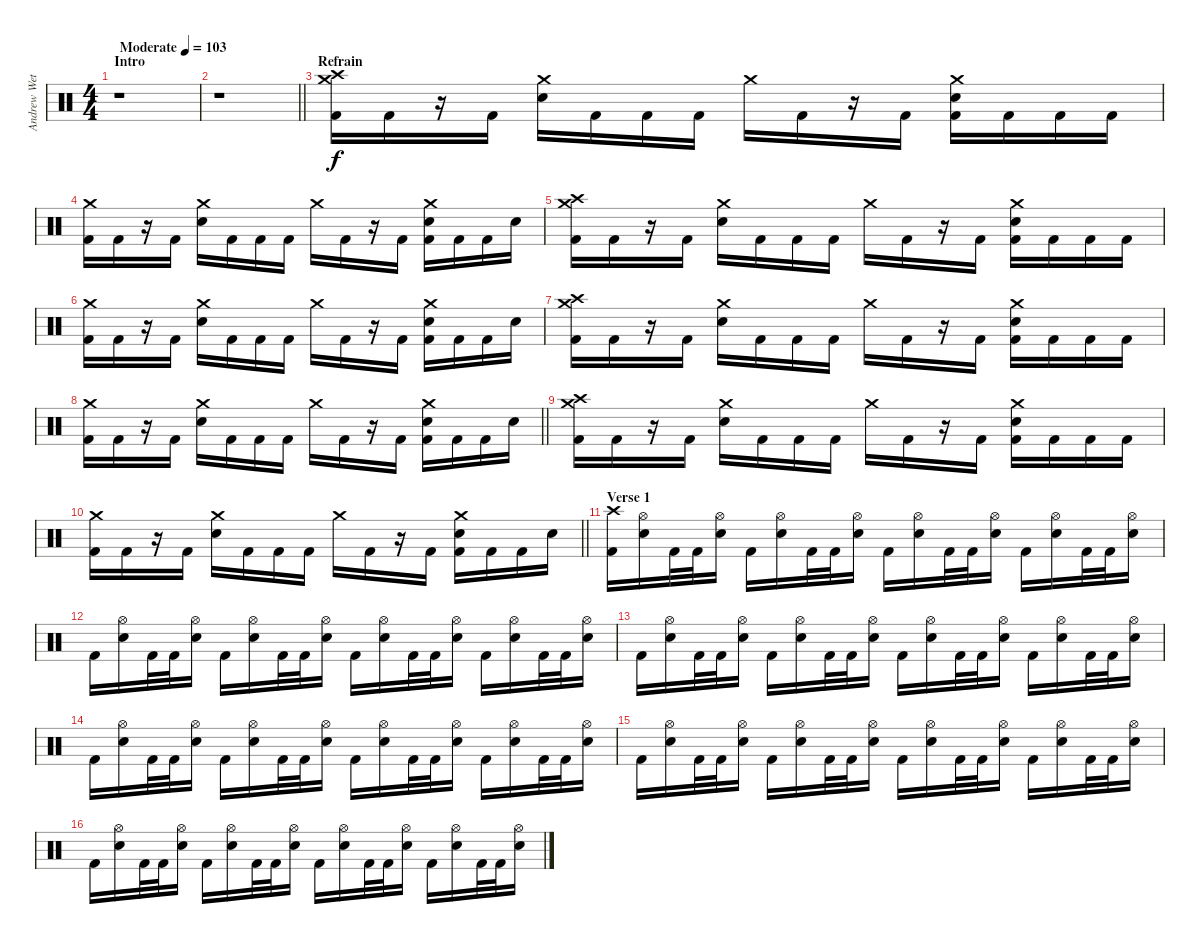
\track ("Andrew Wetzel - Drums" "Andrew Wet") {instrument percussion}
\staff {score}
\articulation defaults
\ts (4 4)
\section ("" "Intro")
\tempo (103 "Moderate")
\clef neutral
\ks c
r.1{dy f} |
\barLineRight lightlight
r.1 |
\section ("" "Refrain")
("Crash high (hit)" "Crash medium (hit)" "Kick (hit) 2").16 "Kick (hit) 2".16 r.16 "Kick (hit) 2".16 ("Crash medium (hit)" "Electric Snare (hit)").16 "Kick (hit) 2".16 "Kick (hit) 2".16 "Kick (hit) 2".16 "Crash medium (hit)".16 "Kick (hit) 2".16 r.16 "Kick (hit) 2".16 ("Crash medium (hit)" "Electric Snare (hit)" "Kick (hit) 2").16 "Kick (hit) 2".16 "Kick (hit) 2".16 "Kick (hit) 2".16 |
("Crash medium (hit)" "Kick (hit) 2").16 "Kick (hit) 2".16 r.16 "Kick (hit) 2".16 ("Crash medium (hit)" "Electric Snare (hit)").16 "Kick (hit) 2".16 "Kick (hit) 2".16 "Kick (hit) 2".16 "Crash medium (hit)".16 "Kick (hit) 2".16 r.16 "Kick (hit) 2".16 ("Crash medium (hit)" "Electric Snare (hit)" "Kick (hit) 2").16 "Kick (hit) 2".16 "Kick (hit) 2".16 "Electric Snare (hit)".16 |
("Crash high (hit)" "Crash medium (hit)" "Kick (hit) 2").16 "Kick (hit) 2".16 r.16 "Kick (hit) 2".16 ("Crash medium (hit)" "Electric Snare (hit)").16 "Kick (hit) 2".16 "Kick (hit) 2".16 "Kick (hit) 2".16 "Crash medium (hit)".16 "Kick (hit) 2".16 r.16 "Kick (hit) 2".16 ("Crash medium (hit)" "Electric Snare (hit)" "Kick (hit) 2").16 "Kick (hit) 2".16 "Kick (hit) 2".16 "Kick (hit) 2".16 |
("Crash medium (hit)" "Kick (hit) 2").16 "Kick (hit) 2".16 r.16 "Kick (hit) 2".16 ("Crash medium (hit)" "Electric Snare (hit)").16 "Kick (hit) 2".16 "Kick (hit) 2".16 "Kick (hit) 2".16 "Crash medium (hit)".16 "Kick (hit) 2".16 r.16 "Kick (hit) 2".16 ("Crash medium (hit)" "Electric Snare (hit)" "Kick (hit) 2").16 "Kick (hit) 2".16 "Kick (hit) 2".16 "Electric Snare (hit)".16 |
("Crash high (hit)" "Crash medium (hit)" "Kick (hit) 2").16 "Kick (hit) 2".16 r.16 "Kick (hit) 2".16 ("Crash medium (hit)" "Electric Snare (hit)").16 "Kick (hit) 2".16 "Kick (hit) 2".16 "Kick (hit) 2".16 "Crash medium (hit)".16 "Kick (hit) 2".16 r.16 "Kick (hit) 2".16 ("Crash medium (hit)" "Electric Snare (hit)" "Kick (hit) 2").16 "Kick (hit) 2".16 "Kick (hit) 2".16 "Kick (hit) 2".16 |
\barLineRight lightlight
("Crash medium (hit)" "Kick (hit) 2").16 "Kick (hit) 2".16 r.16 "Kick (hit) 2".16 ("Crash medium (hit)" "Electric Snare (hit)").16 "Kick (hit) 2".16 "Kick (hit) 2".16 "Kick (hit) 2".16 "Crash medium (hit)".16 "Kick (hit) 2".16 r.16 "Kick (hit) 2".16 ("Crash medium (hit)" "Electric Snare (hit)" "Kick (hit) 2").16 "Kick (hit) 2".16 "Kick (hit) 2".16 "Electric Snare (hit)".16 |
("Crash high (hit)" "Crash medium (hit)" "Kick (hit) 2").16 "Kick (hit) 2".16 r.16 "Kick (hit) 2".16 ("Crash medium (hit)" "Electric Snare (hit)").16 "Kick (hit) 2".16 "Kick (hit) 2".16 "Kick (hit) 2".16 "Crash medium (hit)".16 "Kick (hit) 2".16 r.16 "Kick (hit) 2".16 ("Crash medium (hit)" "Electric Snare (hit)" "Kick (hit) 2").16 "Kick (hit) 2".16 "Kick (hit) 2".16 "Kick (hit) 2".16 |
\barLineRight lightlight
("Crash medium (hit)" "Kick (hit) 2").16 "Kick (hit) 2".16 r.16 "Kick (hit) 2".16 ("Crash medium (hit)" "Electric Snare (hit)").16 "Kick (hit) 2".16 "Kick (hit) 2".16 "Kick (hit) 2".16 "Crash medium (hit)".16 "Kick (hit) 2".16 r.16 "Kick (hit) 2".16 ("Crash medium (hit)" "Electric Snare (hit)" "Kick (hit) 2").16 "Kick (hit) 2".16 "Kick (hit) 2".16 "Electric Snare (hit)".16 |
\section ("" "Verse 1")
("Crash high (hit)" "Kick (hit) 2").16 ("Hi-Hat (open)" "Electric Snare (hit)").16 "Kick (hit) 2".32 "Kick (hit) 2".32 ("Hi-Hat (open)" "Electric Snare (hit)").16 "Kick (hit) 2".16 ("Hi-Hat (open)" "Electric Snare (hit)").16 "Kick (hit) 2".32 "Kick (hit) 2".32 ("Hi-Hat (open)" "Electric Snare (hit)").16 "Kick (hit) 2".16 ("Hi-Hat (open)" "Electric Snare (hit)").16 "Kick (hit) 2".32 "Kick (hit) 2".32 ("Hi-Hat (open)" "Electric Snare (hit)").16 "Kick (hit) 2".16 ("Hi-Hat (open)" "Electric Snare (hit)").16 "Kick (hit) 2".32 "Kick (hit) 2".32 ("Hi-Hat (open)" "Electric Snare (hit)").16 |
"Kick (hit) 2".16 ("Hi-Hat (open)" "Electric Snare (hit)").16 "Kick (hit) 2".32 "Kick (hit) 2".32 ("Hi-Hat (open)" "Electric Snare (hit)").16 "Kick (hit) 2".16 ("Hi-Hat (open)" "Electric Snare (hit)").16 "Kick (hit) 2".32 "Kick (hit) 2".32 ("Hi-Hat (open)" "Electric Snare (hit)").16 "Kick (hit) 2".16 ("Hi-Hat (open)" "Electric Snare (hit)").16 "Kick (hit) 2".32 "Kick (hit) 2".32 ("Hi-Hat (open)" "Electric Snare (hit)").16 "Kick (hit) 2".16 ("Hi-Hat (open)" "Electric Snare (hit)").16 "Kick (hit) 2".32 "Kick (hit) 2".32 ("Hi-Hat (open)" "Electric Snare (hit)").16 |
"Kick (hit) 2".16 ("Hi-Hat (open)" "Electric Snare (hit)").16 "Kick (hit) 2".32 "Kick (hit) 2".32 ("Hi-Hat (open)" "Electric Snare (hit)").16 "Kick (hit) 2".16 ("Hi-Hat (open)" "Electric Snare (hit)").16 "Kick (hit) 2".32 "Kick (hit) 2".32 ("Hi-Hat (open)" "Electric Snare (hit)").16 "Kick (hit) 2".16 ("Hi-Hat (open)" "Electric Snare (hit)").16 "Kick (hit) 2".32 "Kick (hit) 2".32 ("Hi-Hat (open)" "Electric Snare (hit)").16 "Kick (hit) 2".16 ("Hi-Hat (open)" "Electric Snare (hit)").16 "Kick (hit) 2".32 "Kick (hit) 2".32 ("Hi-Hat (open)" "Electric Snare (hit)").16 |
"Kick (hit) 2".16 ("Hi-Hat (open)" "Electric Snare (hit)").16 "Kick (hit) 2".32 "Kick (hit) 2".32 ("Hi-Hat (open)" "Electric Snare (hit)").16 "Kick (hit) 2".16 ("Hi-Hat (open)" "Electric Snare (hit)").16 "Kick (hit) 2".32 "Kick (hit) 2".32 ("Hi-Hat (open)" "Electric Snare (hit)").16 "Kick (hit) 2".16 ("Hi-Hat (open)" "Electric Snare (hit)").16 "Kick (hit) 2".32 "Kick (hit) 2".32 ("Hi-Hat (open)" "Electric Snare (hit)").16 "Kick (hit) 2".16 ("Hi-Hat (open)" "Electric Snare (hit)").16 "Kick (hit) 2".32 "Kick (hit) 2".32 ("Hi-Hat (open)" "Electric Snare (hit)").16 |
"Kick (hit) 2".16 ("Hi-Hat (open)" "Electric Snare (hit)").16 "Kick (hit) 2".32 "Kick (hit) 2".32 ("Hi-Hat (open)" "Electric Snare (hit)").16 "Kick (hit) 2".16 ("Hi-Hat (open)" "Electric Snare (hit)").16 "Kick (hit) 2".32 "Kick (hit) 2".32 ("Hi-Hat (open)" "Electric Snare (hit)").16 "Kick (hit) 2".16 ("Hi-Hat (open)" "Electric Snare (hit)").16 "Kick (hit) 2".32 "Kick (hit) 2".32 ("Hi-Hat (open)" "Electric Snare (hit)").16 "Kick (hit) 2".16 ("Hi-Hat (open)" "Electric Snare (hit)").16 "Kick (hit) 2".32 "Kick (hit) 2".32 ("Hi-Hat (open)" "Electric Snare (hit)").16 |
"Kick (hit) 2".16 ("Hi-Hat (open)" "Electric Snare (hit)").16 "Kick (hit) 2".32 "Kick (hit) 2".32 ("Hi-Hat (open)" "Electric Snare (hit)").16 "Kick (hit) 2".16 ("Hi-Hat (open)" "Electric Snare (hit)").16 "Kick (hit) 2".32 "Kick (hit) 2".32 ("Hi-Hat (open)" "Electric Snare (hit)").16 "Kick (hit) 2".16 ("Hi-Hat (open)" "Electric Snare (hit)").16 "Kick (hit) 2".32 "Kick (hit) 2".32 ("Hi-Hat (open)" "Electric Snare (hit)").16 "Kick (hit) 2".16 ("Hi-Hat (open)" "Electric Snare (hit)").16 "Kick (hit) 2".32 "Kick (hit) 2".32 ("Hi-Hat (open)" "Electric Snare (hit)").16
